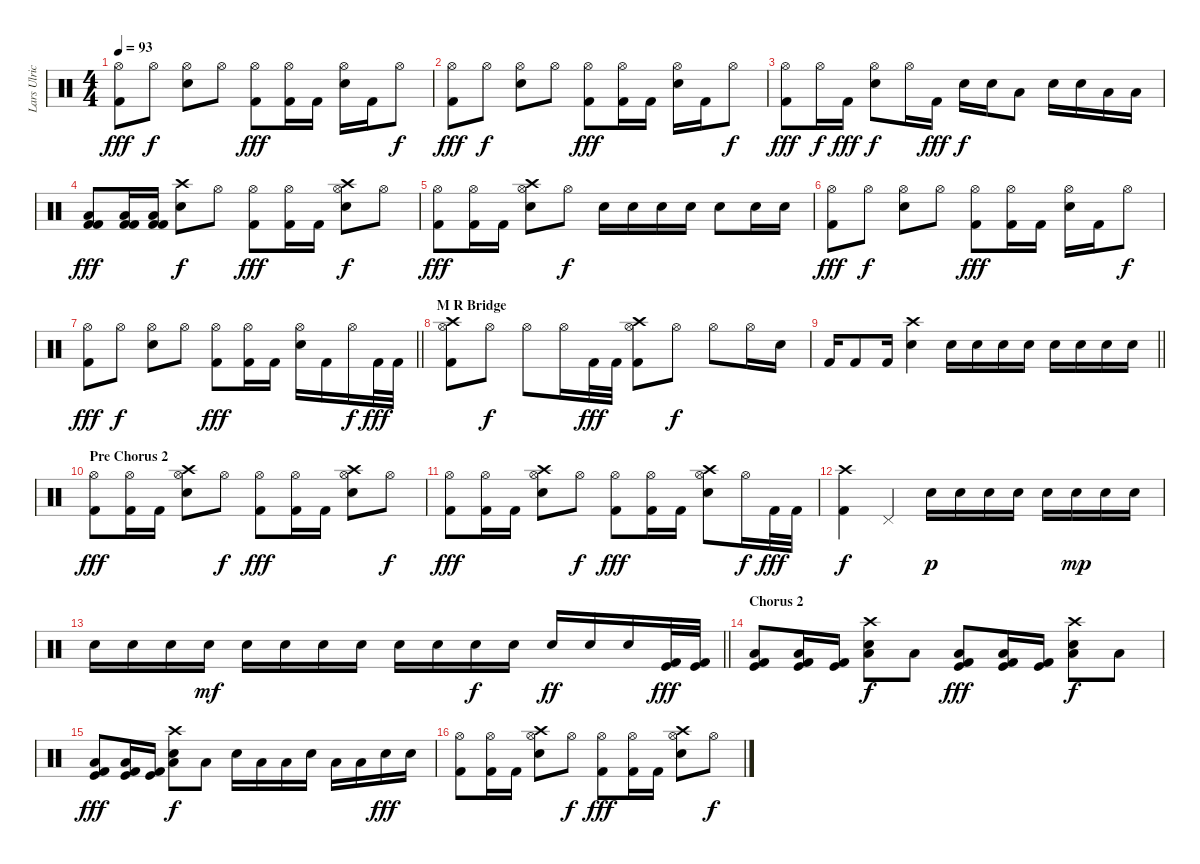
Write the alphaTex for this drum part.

\track ("Lars Ulrich" "Lars Ulric") {instrument percussion}
\staff {score}
\articulation defaults
\ts (4 4)
\tempo 93
\clef neutral
\ks c
("Hi-Hat (open)" "Kick (hit) 2").8{dy fff} "Hi-Hat (open)".8{dy f} ("Hi-Hat (open)" "Snare (hit) 2").8 "Hi-Hat (open)".8 ("Hi-Hat (open)" "Kick (hit) 2").8{dy fff} ("Hi-Hat (open)" "Kick (hit) 2").16 "Kick (hit) 2".16 ("Hi-Hat (open)" "Snare (hit) 2").16 "Kick (hit) 2".16 "Hi-Hat (open)".8{dy f} |
("Hi-Hat (open)" "Kick (hit) 2").8{dy fff} "Hi-Hat (open)".8{dy f} ("Hi-Hat (open)" "Snare (hit) 2").8 "Hi-Hat (open)".8 ("Hi-Hat (open)" "Kick (hit) 2").8{dy fff} ("Hi-Hat (open)" "Kick (hit) 2").16 "Kick (hit) 2".16 ("Hi-Hat (open)" "Snare (hit) 2").16 "Kick (hit) 2".16 "Hi-Hat (open)".8{dy f} |
("Hi-Hat (open)" "Kick (hit) 2").8{dy fff} "Hi-Hat (open)".16{dy f} "Kick (hit) 2".16{dy fff} ("Hi-Hat (open)" "Snare (hit) 2").8{dy f} "Hi-Hat (open)".16 "Kick (hit) 2".16{dy fff} "Snare (hit) 2".16{dy f} "Snare (hit) 2".16 "Low Floor Tom (hit)".8 "Snare (hit) 2".16 "Snare (hit) 2".16 "Low Tom (hit)".16 "Low Floor Tom (hit)".16 |
("Low Floor Tom (hit)" "Kick (hit) 2" "Kick (hit) 2").8{dy fff} ("Low Floor Tom (hit)" "Kick (hit) 2" "Kick (hit) 2").16 ("Low Floor Tom (hit)" "Kick (hit) 2" "Kick (hit) 2").16 ("Crash high (hit)" "Snare (hit) 2").8{dy f} "Hi-Hat (open)".8 ("Hi-Hat (open)" "Kick (hit) 2").8{dy fff} ("Hi-Hat (open)" "Kick (hit) 2").16 "Kick (hit) 2".16 ("Crash high (hit)" "Hi-Hat (open)" "Snare (hit) 2").8{dy f} "Hi-Hat (open)".8 |
("Hi-Hat (open)" "Kick (hit) 2").8{dy fff} ("Hi-Hat (open)" "Kick (hit) 2").16 "Kick (hit) 2".16 ("Crash high (hit)" "Hi-Hat (open)" "Snare (hit) 2").8 "Hi-Hat (open)".8{dy f} "Snare (hit) 2".16 "Snare (hit) 2".16 "Snare (hit) 2".16 "Snare (hit) 2".16 "Snare (hit) 2".8 "Snare (hit) 2".16 "Snare (hit) 2".16 |
("Hi-Hat (open)" "Kick (hit) 2").8{dy fff} "Hi-Hat (open)".8{dy f} ("Hi-Hat (open)" "Snare (hit) 2").8 "Hi-Hat (open)".8 ("Hi-Hat (open)" "Kick (hit) 2").8{dy fff} ("Hi-Hat (open)" "Kick (hit) 2").16 "Kick (hit) 2".16 ("Hi-Hat (open)" "Snare (hit) 2").16 "Kick (hit) 2".16 "Hi-Hat (open)".8{dy f} |
\barLineRight lightlight
("Hi-Hat (open)" "Kick (hit) 2").8{dy fff} "Hi-Hat (open)".8{dy f} ("Hi-Hat (open)" "Snare (hit) 2").8 "Hi-Hat (open)".8 ("Hi-Hat (open)" "Kick (hit) 2").8{dy fff} ("Hi-Hat (open)" "Kick (hit) 2").16 "Kick (hit) 2".16 ("Hi-Hat (open)" "Snare (hit) 2").16 "Kick (hit) 2".16 "Hi-Hat (open)".16{dy f} "Kick (hit) 2".32{dy fff} "Kick (hit) 2".32 |
\section ("" "M R Bridge")
("Crash high (hit)" "Hi-Hat (open)" "Kick (hit) 2").8 "Hi-Hat (open)".8{dy f} "Hi-Hat (open)".8 "Hi-Hat (open)".16 "Kick (hit) 2".32{dy fff} "Kick (hit) 2".32 ("Crash high (hit)" "Hi-Hat (open)" "Kick (hit) 2").8 "Hi-Hat (open)".8{dy f} "Hi-Hat (open)".8 "Hi-Hat (open)".16 "Electric Snare (hit)".16 |
\barLineRight lightlight "Kick (hit) 2".16 "Kick (hit) 2".8 "Kick (hit) 2".16
("Crash high (hit)" "Electric Snare (hit)").4 "Snare (hit) 2".16 "Snare (hit) 2".16 "Snare (hit) 2".16 "Snare (hit) 2".16 "Snare (hit) 2".16 "Snare (hit) 2".16 "Snare (hit) 2".16 "Snare (hit) 2".16 |
\section ("" "Pre Chorus 2")
("Hi-Hat (open)" "Kick (hit) 2").8{dy fff} ("Hi-Hat (open)" "Kick (hit) 2").16 "Kick (hit) 2".16 ("Crash high (hit)" "Hi-Hat (open)" "Snare (hit) 2").8 "Hi-Hat (open)".8{dy f} ("Hi-Hat (open)" "Kick (hit) 2").8{dy fff} ("Hi-Hat (open)" "Kick (hit) 2").16 "Kick (hit) 2".16 ("Crash high (hit)" "Hi-Hat (open)" "Snare (hit) 2").8 "Hi-Hat (open)".8{dy f} |
("Hi-Hat (open)" "Kick (hit) 2").8{dy fff} ("Hi-Hat (open)" "Kick (hit) 2").16 "Kick (hit) 2".16 ("Crash high (hit)" "Hi-Hat (open)" "Snare (hit) 2").8 "Hi-Hat (open)".8{dy f} ("Hi-Hat (open)" "Kick (hit) 2").8{dy fff} ("Hi-Hat (open)" "Kick (hit) 2").16 "Kick (hit) 2".16 ("Crash high (hit)" "Hi-Hat (open)" "Snare (hit) 2").8 "Hi-Hat (open)".16{dy f} "Kick (hit) 2".32{dy fff} "Kick (hit) 2".32 |
("Crash high (hit)" "Kick (hit) 2").4{dy f} "Pedal Hi-Hat (hit)".4 "Snare (hit) 2".16{dy p} "Snare (hit) 2".16 "Snare (hit) 2".16 "Snare (hit) 2".16 "Snare (hit) 2".16 "Snare (hit) 2".16{dy mp} "Snare (hit) 2".16 "Snare (hit) 2".16 |
\barLineRight lightlight "Snare (hit) 2".16 "Snare (hit) 2".16 "Snare (hit) 2".16 "Snare (hit) 2".16{dy mf} "Snare (hit) 2".16 "Snare (hit) 2".16 "Snare (hit) 2".16 "Snare (hit) 2".16 "Snare (hit) 2".16 "Snare (hit) 2".16 "Snare (hit) 2".16{dy f} "Snare (hit) 2".16 "Snare (hit) 2".16{dy ff} "Snare (hit) 2".16 "Snare (hit) 2".16
("Kick (hit)" "Kick (hit) 2").32{dy fff} ("Kick (hit)" "Kick (hit) 2").32 |
\section ("" "Chorus 2")
("Low Floor Tom (hit)" "Kick (hit)" "Kick (hit) 2").8 ("Low Floor Tom (hit)" "Kick (hit)" "Kick (hit) 2").16 ("Kick (hit)" "Kick (hit) 2").16 ("Crash high (hit)" "Snare (hit) 2" "Low Floor Tom (hit)").8{dy f} "Low Floor Tom (hit)".8 ("Low Floor Tom (hit)" "Kick (hit)" "Kick (hit) 2").8{dy fff} ("Low Floor Tom (hit)" "Kick (hit)" "Kick (hit) 2").16 ("Kick (hit)" "Kick (hit) 2").16 ("Crash high (hit)" "Snare (hit) 2" "Low Floor Tom (hit)").8{dy f} "Low Floor Tom (hit)".8 |
("Low Floor Tom (hit)" "Kick (hit)" "Kick (hit) 2").8{dy fff} ("Low Floor Tom (hit)" "Kick (hit)" "Kick (hit) 2").16 ("Kick (hit)" "Kick (hit) 2").16 ("Crash high (hit)" "Snare (hit) 2" "Low Floor Tom (hit)").8{dy f} "Low Floor Tom (hit)".8 "Snare (hit) 2".16 "Low Tom (hit)".16 "Low Floor Tom (hit)".16 "Snare (hit) 2".16 "Low Tom (hit)".16 "Low Floor Tom (hit)".16 "Snare (hit) 2".16{dy fff} "Snare (hit) 2".16 |
("Hi-Hat (open)" "Kick (hit) 2").8 ("Hi-Hat (open)" "Kick (hit) 2").16 "Kick (hit) 2".16 ("Crash high (hit)" "Hi-Hat (open)" "Snare (hit) 2").8 "Hi-Hat (open)".8{dy f} ("Hi-Hat (open)" "Kick (hit) 2").8{dy fff} ("Hi-Hat (open)" "Kick (hit) 2").16 "Kick (hit) 2".16 ("Crash high (hit)" "Hi-Hat (open)" "Snare (hit) 2").8 "Hi-Hat (open)".8{dy f}
